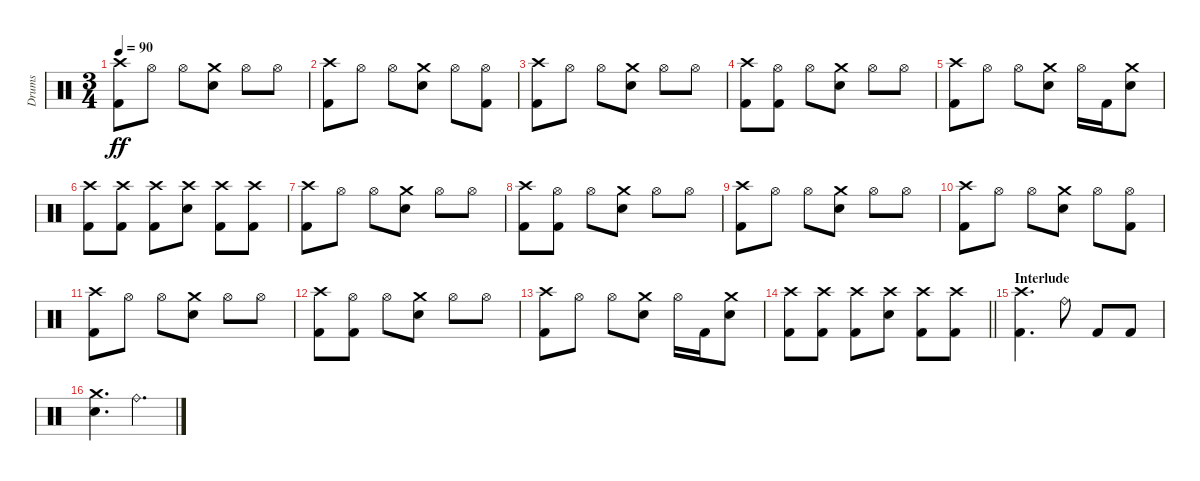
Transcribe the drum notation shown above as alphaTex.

\track ("Drums" "Drums") {instrument percussion}
\staff {score}
\articulation defaults
\ts (3 4)
\tempo 90
\clef neutral
\ks c
("Crash high (hit)" "Kick (hit) 2").8{dy ff} "Hi-Hat (open)".8 "Hi-Hat (open)".8 ("Crash medium (hit)" "Electric Snare (hit)").8 "Hi-Hat (open)".8 "Hi-Hat (open)".8 |
("Crash high (hit)" "Kick (hit) 2").8 "Hi-Hat (open)".8 "Hi-Hat (open)".8 ("Crash medium (hit)" "Electric Snare (hit)").8 "Hi-Hat (open)".8 ("Hi-Hat (open)" "Kick (hit) 2").8 |
("Crash high (hit)" "Kick (hit) 2").8 "Hi-Hat (open)".8 "Hi-Hat (open)".8 ("Crash medium (hit)" "Electric Snare (hit)").8 "Hi-Hat (open)".8 "Hi-Hat (open)".8 |
("Crash high (hit)" "Kick (hit) 2").8 ("Hi-Hat (open)" "Kick (hit) 2").8 "Hi-Hat (open)".8 ("Crash medium (hit)" "Electric Snare (hit)").8 "Hi-Hat (open)".8 "Hi-Hat (open)".8 |
("Crash high (hit)" "Kick (hit) 2").8 "Hi-Hat (open)".8 "Hi-Hat (open)".8 ("Crash medium (hit)" "Electric Snare (hit)").8 "Hi-Hat (open)".16 "Kick (hit) 2".16 ("Crash medium (hit)" "Electric Snare (hit)").8 |
("Crash high (hit)" "Kick (hit) 2").8 ("Crash high (hit)" "Kick (hit) 2").8 ("Crash high (hit)" "Kick (hit) 2").8 ("Crash high (hit)" "Electric Snare (hit)").8 ("Crash high (hit)" "Kick (hit) 2").8 ("Crash high (hit)" "Kick (hit) 2").8 |
("Crash high (hit)" "Kick (hit) 2").8 "Hi-Hat (open)".8 "Hi-Hat (open)".8 ("Crash medium (hit)" "Electric Snare (hit)").8 "Hi-Hat (open)".8 "Hi-Hat (open)".8 |
("Crash high (hit)" "Kick (hit) 2").8 ("Hi-Hat (open)" "Kick (hit) 2").8 "Hi-Hat (open)".8 ("Crash medium (hit)" "Electric Snare (hit)").8 "Hi-Hat (open)".8 "Hi-Hat (open)".8 |
("Crash high (hit)" "Kick (hit) 2").8 "Hi-Hat (open)".8 "Hi-Hat (open)".8 ("Crash medium (hit)" "Electric Snare (hit)").8 "Hi-Hat (open)".8 "Hi-Hat (open)".8 |
("Crash high (hit)" "Kick (hit) 2").8 "Hi-Hat (open)".8 "Hi-Hat (open)".8 ("Crash medium (hit)" "Electric Snare (hit)").8 "Hi-Hat (open)".8 ("Hi-Hat (open)" "Kick (hit) 2").8 |
("Crash high (hit)" "Kick (hit) 2").8 "Hi-Hat (open)".8 "Hi-Hat (open)".8 ("Crash medium (hit)" "Electric Snare (hit)").8 "Hi-Hat (open)".8 "Hi-Hat (open)".8 |
("Crash high (hit)" "Kick (hit) 2").8 ("Hi-Hat (open)" "Kick (hit) 2").8 "Hi-Hat (open)".8 ("Crash medium (hit)" "Electric Snare (hit)").8 "Hi-Hat (open)".8 "Hi-Hat (open)".8 |
("Crash high (hit)" "Kick (hit) 2").8 "Hi-Hat (open)".8 "Hi-Hat (open)".8 ("Crash medium (hit)" "Electric Snare (hit)").8 "Hi-Hat (open)".16 "Kick (hit) 2".16 ("Crash medium (hit)" "Electric Snare (hit)").8 |
\barLineRight lightlight
("Crash high (hit)" "Kick (hit) 2").8 ("Crash high (hit)" "Kick (hit) 2").8 ("Crash high (hit)" "Kick (hit) 2").8 ("Crash high (hit)" "Electric Snare (hit)").8 ("Crash high (hit)" "Kick (hit) 2").8 ("Crash high (hit)" "Kick (hit) 2").8 |
\section ("" "Interlude")
("Crash high (hit)" "Kick (hit) 2").4{d} "Ride (bell)".8 "Kick (hit) 2".8 "Kick (hit) 2".8 |
("Crash medium (hit)" "Electric Snare (hit)").4{d} "Ride (bell)".4{d}
